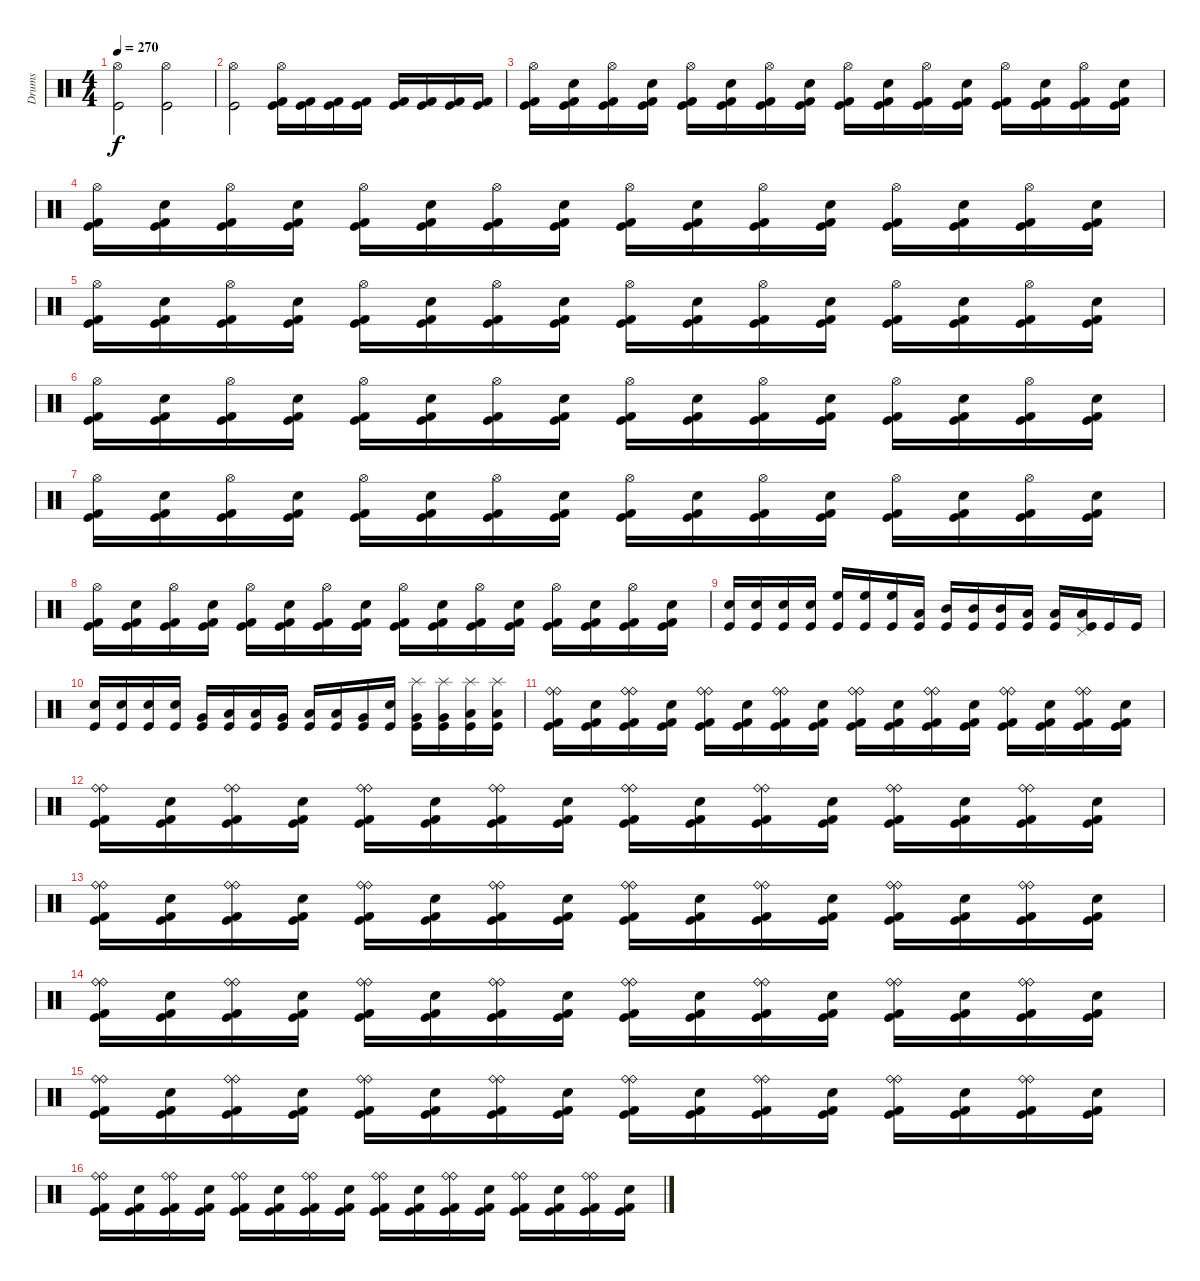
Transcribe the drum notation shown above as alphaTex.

\track ("Drums" "Drums") {instrument percussion}
\staff {score}
\articulation defaults
\ts (4 4)
\tempo 270
\clef neutral
\ks c
("Hi-Hat (open)" "Kick (hit)").2{dy f} ("Hi-Hat (open)" "Kick (hit)").2 |
("Hi-Hat (open)" "Kick (hit)").2 ("Hi-Hat (open)" "Kick (hit) 2" "Kick (hit)").16 ("Kick (hit) 2" "Kick (hit)").16 ("Kick (hit) 2" "Kick (hit)").16 ("Kick (hit) 2" "Kick (hit)").16 ("Kick (hit) 2" "Kick (hit)").16 ("Kick (hit) 2" "Kick (hit)").16 ("Kick (hit) 2" "Kick (hit)").16 ("Kick (hit) 2" "Kick (hit)").16 |
("Hi-Hat (open)" "Kick (hit)" "Kick (hit) 2").16 ("Electric Snare (hit)" "Kick (hit)" "Kick (hit) 2").16 ("Hi-Hat (open)" "Kick (hit)" "Kick (hit) 2").16 ("Electric Snare (hit)" "Kick (hit)" "Kick (hit) 2").16 ("Hi-Hat (open)" "Kick (hit)" "Kick (hit) 2").16 ("Electric Snare (hit)" "Kick (hit)" "Kick (hit) 2").16 ("Hi-Hat (open)" "Kick (hit)" "Kick (hit) 2").16 ("Electric Snare (hit)" "Kick (hit)" "Kick (hit) 2").16 ("Hi-Hat (open)" "Kick (hit)" "Kick (hit) 2").16 ("Electric Snare (hit)" "Kick (hit)" "Kick (hit) 2").16 ("Hi-Hat (open)" "Kick (hit)" "Kick (hit) 2").16 ("Electric Snare (hit)" "Kick (hit)" "Kick (hit) 2").16 ("Hi-Hat (open)" "Kick (hit)" "Kick (hit) 2").16 ("Electric Snare (hit)" "Kick (hit)" "Kick (hit) 2").16 ("Hi-Hat (open)" "Kick (hit)" "Kick (hit) 2").16 ("Electric Snare (hit)" "Kick (hit)" "Kick (hit) 2").16 |
("Hi-Hat (open)" "Kick (hit)" "Kick (hit) 2").16 ("Electric Snare (hit)" "Kick (hit)" "Kick (hit) 2").16 ("Hi-Hat (open)" "Kick (hit)" "Kick (hit) 2").16 ("Electric Snare (hit)" "Kick (hit)" "Kick (hit) 2").16 ("Hi-Hat (open)" "Kick (hit)" "Kick (hit) 2").16 ("Electric Snare (hit)" "Kick (hit)" "Kick (hit) 2").16 ("Hi-Hat (open)" "Kick (hit)" "Kick (hit) 2").16 ("Electric Snare (hit)" "Kick (hit)" "Kick (hit) 2").16 ("Hi-Hat (open)" "Kick (hit)" "Kick (hit) 2").16 ("Electric Snare (hit)" "Kick (hit)" "Kick (hit) 2").16 ("Hi-Hat (open)" "Kick (hit)" "Kick (hit) 2").16 ("Electric Snare (hit)" "Kick (hit)" "Kick (hit) 2").16 ("Hi-Hat (open)" "Kick (hit)" "Kick (hit) 2").16 ("Electric Snare (hit)" "Kick (hit)" "Kick (hit) 2").16 ("Hi-Hat (open)" "Kick (hit)" "Kick (hit) 2").16 ("Electric Snare (hit)" "Kick (hit)" "Kick (hit) 2").16 |
("Hi-Hat (open)" "Kick (hit)" "Kick (hit) 2").16 ("Electric Snare (hit)" "Kick (hit)" "Kick (hit) 2").16 ("Hi-Hat (open)" "Kick (hit)" "Kick (hit) 2").16 ("Electric Snare (hit)" "Kick (hit)" "Kick (hit) 2").16 ("Hi-Hat (open)" "Kick (hit)" "Kick (hit) 2").16 ("Electric Snare (hit)" "Kick (hit)" "Kick (hit) 2").16 ("Hi-Hat (open)" "Kick (hit)" "Kick (hit) 2").16 ("Electric Snare (hit)" "Kick (hit)" "Kick (hit) 2").16 ("Hi-Hat (open)" "Kick (hit)" "Kick (hit) 2").16 ("Electric Snare (hit)" "Kick (hit)" "Kick (hit) 2").16 ("Hi-Hat (open)" "Kick (hit)" "Kick (hit) 2").16 ("Electric Snare (hit)" "Kick (hit)" "Kick (hit) 2").16 ("Hi-Hat (open)" "Kick (hit)" "Kick (hit) 2").16 ("Electric Snare (hit)" "Kick (hit)" "Kick (hit) 2").16 ("Hi-Hat (open)" "Kick (hit)" "Kick (hit) 2").16 ("Electric Snare (hit)" "Kick (hit)" "Kick (hit) 2").16 |
("Hi-Hat (open)" "Kick (hit)" "Kick (hit) 2").16 ("Electric Snare (hit)" "Kick (hit)" "Kick (hit) 2").16 ("Hi-Hat (open)" "Kick (hit)" "Kick (hit) 2").16 ("Electric Snare (hit)" "Kick (hit)" "Kick (hit) 2").16 ("Hi-Hat (open)" "Kick (hit)" "Kick (hit) 2").16 ("Electric Snare (hit)" "Kick (hit)" "Kick (hit) 2").16 ("Hi-Hat (open)" "Kick (hit)" "Kick (hit) 2").16 ("Electric Snare (hit)" "Kick (hit)" "Kick (hit) 2").16 ("Hi-Hat (open)" "Kick (hit)" "Kick (hit) 2").16 ("Electric Snare (hit)" "Kick (hit)" "Kick (hit) 2").16 ("Hi-Hat (open)" "Kick (hit)" "Kick (hit) 2").16 ("Electric Snare (hit)" "Kick (hit)" "Kick (hit) 2").16 ("Hi-Hat (open)" "Kick (hit)" "Kick (hit) 2").16 ("Electric Snare (hit)" "Kick (hit)" "Kick (hit) 2").16 ("Hi-Hat (open)" "Kick (hit)" "Kick (hit) 2").16 ("Electric Snare (hit)" "Kick (hit)" "Kick (hit) 2").16 |
("Hi-Hat (open)" "Kick (hit)" "Kick (hit) 2").16 ("Electric Snare (hit)" "Kick (hit)" "Kick (hit) 2").16 ("Hi-Hat (open)" "Kick (hit)" "Kick (hit) 2").16 ("Electric Snare (hit)" "Kick (hit)" "Kick (hit) 2").16 ("Hi-Hat (open)" "Kick (hit)" "Kick (hit) 2").16 ("Electric Snare (hit)" "Kick (hit)" "Kick (hit) 2").16 ("Hi-Hat (open)" "Kick (hit)" "Kick (hit) 2").16 ("Electric Snare (hit)" "Kick (hit)" "Kick (hit) 2").16 ("Hi-Hat (open)" "Kick (hit)" "Kick (hit) 2").16 ("Electric Snare (hit)" "Kick (hit)" "Kick (hit) 2").16 ("Hi-Hat (open)" "Kick (hit)" "Kick (hit) 2").16 ("Electric Snare (hit)" "Kick (hit)" "Kick (hit) 2").16 ("Hi-Hat (open)" "Kick (hit)" "Kick (hit) 2").16 ("Electric Snare (hit)" "Kick (hit)" "Kick (hit) 2").16 ("Hi-Hat (open)" "Kick (hit)" "Kick (hit) 2").16 ("Electric Snare (hit)" "Kick (hit)" "Kick (hit) 2").16 |
("Hi-Hat (open)" "Kick (hit)" "Kick (hit) 2").16 ("Electric Snare (hit)" "Kick (hit)" "Kick (hit) 2").16 ("Hi-Hat (open)" "Kick (hit)" "Kick (hit) 2").16 ("Electric Snare (hit)" "Kick (hit)" "Kick (hit) 2").16 ("Hi-Hat (open)" "Kick (hit)" "Kick (hit) 2").16 ("Electric Snare (hit)" "Kick (hit)" "Kick (hit) 2").16 ("Hi-Hat (open)" "Kick (hit)" "Kick (hit) 2").16 ("Electric Snare (hit)" "Kick (hit)" "Kick (hit) 2").16 ("Hi-Hat (open)" "Kick (hit)" "Kick (hit) 2").16 ("Electric Snare (hit)" "Kick (hit)" "Kick (hit) 2").16 ("Hi-Hat (open)" "Kick (hit)" "Kick (hit) 2").16 ("Electric Snare (hit)" "Kick (hit)" "Kick (hit) 2").16 ("Hi-Hat (open)" "Kick (hit)" "Kick (hit) 2").16 ("Electric Snare (hit)" "Kick (hit)" "Kick (hit) 2").16 ("Hi-Hat (open)" "Kick (hit)" "Kick (hit) 2").16 ("Electric Snare (hit)" "Kick (hit)" "Kick (hit) 2").16 |
("Electric Snare (hit)" "Kick (hit)").16 ("Electric Snare (hit)" "Kick (hit)").16 ("Electric Snare (hit)" "Kick (hit)").16 ("Electric Snare (hit)" "Kick (hit)").16 ("High Floor Tom (hit)" "Kick (hit)").16 ("High Floor Tom (hit)" "Kick (hit)").16 ("High Floor Tom (hit)" "Kick (hit)").16 ("Low Tom (hit)" "Kick (hit)").16 ("Mid Tom (hit)" "Kick (hit)").16 ("Mid Tom (hit)" "Kick (hit)").16 ("Mid Tom (hit)" "Kick (hit)").16 ("Low Tom (hit)" "Kick (hit)").16 ("Low Tom (hit)" "Kick (hit)").16 ("Pedal Hi-Hat (hit)" "Low Tom (hit)" "Kick (hit)").16 "Kick (hit)".16 "Kick (hit)".16 |
("Electric Snare (hit)" "Kick (hit)").16 ("Electric Snare (hit)" "Kick (hit)").16 ("Electric Snare (hit)" "Kick (hit)").16 ("Electric Snare (hit)" "Kick (hit)").16 ("Very Low Tom (hit)" "Kick (hit)").16 ("Low Tom (hit)" "Kick (hit)").16 ("Low Floor Tom (hit)" "Kick (hit)").16 ("Very Low Tom (hit)" "Kick (hit)").16 ("Low Floor Tom (hit)" "Kick (hit)").16 ("Low Floor Tom (hit)" "Kick (hit)").16 ("Very Low Tom (hit)" "Kick (hit)").16 ("Electric Snare (hit)" "Kick (hit)").16 ("Splash (hit)" "Very Low Tom (hit)" "Kick (hit)").16 ("Splash (hit)" "Very Low Tom (hit)" "Kick (hit)").16 ("Splash (hit)" "Low Floor Tom (hit)" "Kick (hit)").16 ("Splash (hit)" "Low Floor Tom (hit)" "Kick (hit)").16 |
("Ride (bell)" "Ride (bell)" "Kick (hit)" "Kick (hit) 2").16 ("Electric Snare (hit)" "Kick (hit)" "Kick (hit) 2").16 ("Ride (bell)" "Ride (bell)" "Kick (hit)" "Kick (hit) 2").16 ("Electric Snare (hit)" "Kick (hit)" "Kick (hit) 2").16 ("Ride (bell)" "Ride (bell)" "Kick (hit)" "Kick (hit) 2").16 ("Electric Snare (hit)" "Kick (hit)" "Kick (hit) 2").16 ("Ride (bell)" "Ride (bell)" "Kick (hit)" "Kick (hit) 2").16 ("Electric Snare (hit)" "Kick (hit)" "Kick (hit) 2").16 ("Ride (bell)" "Ride (bell)" "Kick (hit)" "Kick (hit) 2").16 ("Electric Snare (hit)" "Kick (hit)" "Kick (hit) 2").16 ("Ride (bell)" "Ride (bell)" "Kick (hit)" "Kick (hit) 2").16 ("Electric Snare (hit)" "Kick (hit)" "Kick (hit) 2").16 ("Ride (bell)" "Ride (bell)" "Kick (hit)" "Kick (hit) 2").16 ("Electric Snare (hit)" "Kick (hit)" "Kick (hit) 2").16 ("Ride (bell)" "Ride (bell)" "Kick (hit)" "Kick (hit) 2").16 ("Electric Snare (hit)" "Kick (hit)" "Kick (hit) 2").16 |
("Ride (bell)" "Ride (bell)" "Kick (hit)" "Kick (hit) 2").16 ("Electric Snare (hit)" "Kick (hit)" "Kick (hit) 2").16 ("Ride (bell)" "Ride (bell)" "Kick (hit)" "Kick (hit) 2").16 ("Electric Snare (hit)" "Kick (hit)" "Kick (hit) 2").16 ("Ride (bell)" "Ride (bell)" "Kick (hit)" "Kick (hit) 2").16 ("Electric Snare (hit)" "Kick (hit)" "Kick (hit) 2").16 ("Ride (bell)" "Ride (bell)" "Kick (hit)" "Kick (hit) 2").16 ("Electric Snare (hit)" "Kick (hit)" "Kick (hit) 2").16 ("Ride (bell)" "Ride (bell)" "Kick (hit)" "Kick (hit) 2").16 ("Electric Snare (hit)" "Kick (hit)" "Kick (hit) 2").16 ("Ride (bell)" "Ride (bell)" "Kick (hit)" "Kick (hit) 2").16 ("Electric Snare (hit)" "Kick (hit)" "Kick (hit) 2").16 ("Ride (bell)" "Ride (bell)" "Kick (hit)" "Kick (hit) 2").16 ("Electric Snare (hit)" "Kick (hit)" "Kick (hit) 2").16 ("Ride (bell)" "Ride (bell)" "Kick (hit)" "Kick (hit) 2").16 ("Electric Snare (hit)" "Kick (hit)" "Kick (hit) 2").16 |
("Ride (bell)" "Ride (bell)" "Kick (hit)" "Kick (hit) 2").16 ("Electric Snare (hit)" "Kick (hit)" "Kick (hit) 2").16 ("Ride (bell)" "Ride (bell)" "Kick (hit)" "Kick (hit) 2").16 ("Electric Snare (hit)" "Kick (hit)" "Kick (hit) 2").16 ("Ride (bell)" "Ride (bell)" "Kick (hit)" "Kick (hit) 2").16 ("Electric Snare (hit)" "Kick (hit)" "Kick (hit) 2").16 ("Ride (bell)" "Ride (bell)" "Kick (hit)" "Kick (hit) 2").16 ("Electric Snare (hit)" "Kick (hit)" "Kick (hit) 2").16 ("Ride (bell)" "Ride (bell)" "Kick (hit)" "Kick (hit) 2").16 ("Electric Snare (hit)" "Kick (hit)" "Kick (hit) 2").16 ("Ride (bell)" "Ride (bell)" "Kick (hit)" "Kick (hit) 2").16 ("Electric Snare (hit)" "Kick (hit)" "Kick (hit) 2").16 ("Ride (bell)" "Ride (bell)" "Kick (hit)" "Kick (hit) 2").16 ("Electric Snare (hit)" "Kick (hit)" "Kick (hit) 2").16 ("Ride (bell)" "Ride (bell)" "Kick (hit)" "Kick (hit) 2").16 ("Electric Snare (hit)" "Kick (hit)" "Kick (hit) 2").16 |
("Ride (bell)" "Ride (bell)" "Kick (hit)" "Kick (hit) 2").16 ("Electric Snare (hit)" "Kick (hit)" "Kick (hit) 2").16 ("Ride (bell)" "Ride (bell)" "Kick (hit)" "Kick (hit) 2").16 ("Electric Snare (hit)" "Kick (hit)" "Kick (hit) 2").16 ("Ride (bell)" "Ride (bell)" "Kick (hit)" "Kick (hit) 2").16 ("Electric Snare (hit)" "Kick (hit)" "Kick (hit) 2").16 ("Ride (bell)" "Ride (bell)" "Kick (hit)" "Kick (hit) 2").16 ("Electric Snare (hit)" "Kick (hit)" "Kick (hit) 2").16 ("Ride (bell)" "Ride (bell)" "Kick (hit)" "Kick (hit) 2").16 ("Electric Snare (hit)" "Kick (hit)" "Kick (hit) 2").16 ("Ride (bell)" "Ride (bell)" "Kick (hit)" "Kick (hit) 2").16 ("Electric Snare (hit)" "Kick (hit)" "Kick (hit) 2").16 ("Ride (bell)" "Ride (bell)" "Kick (hit)" "Kick (hit) 2").16 ("Electric Snare (hit)" "Kick (hit)" "Kick (hit) 2").16 ("Ride (bell)" "Ride (bell)" "Kick (hit)" "Kick (hit) 2").16 ("Electric Snare (hit)" "Kick (hit)" "Kick (hit) 2").16 |
("Ride (bell)" "Ride (bell)" "Kick (hit)" "Kick (hit) 2").16 ("Electric Snare (hit)" "Kick (hit)" "Kick (hit) 2").16 ("Ride (bell)" "Ride (bell)" "Kick (hit)" "Kick (hit) 2").16 ("Electric Snare (hit)" "Kick (hit)" "Kick (hit) 2").16 ("Ride (bell)" "Ride (bell)" "Kick (hit)" "Kick (hit) 2").16 ("Electric Snare (hit)" "Kick (hit)" "Kick (hit) 2").16 ("Ride (bell)" "Ride (bell)" "Kick (hit)" "Kick (hit) 2").16 ("Electric Snare (hit)" "Kick (hit)" "Kick (hit) 2").16 ("Ride (bell)" "Ride (bell)" "Kick (hit)" "Kick (hit) 2").16 ("Electric Snare (hit)" "Kick (hit)" "Kick (hit) 2").16 ("Ride (bell)" "Ride (bell)" "Kick (hit)" "Kick (hit) 2").16 ("Electric Snare (hit)" "Kick (hit)" "Kick (hit) 2").16 ("Ride (bell)" "Ride (bell)" "Kick (hit)" "Kick (hit) 2").16 ("Electric Snare (hit)" "Kick (hit)" "Kick (hit) 2").16 ("Ride (bell)" "Ride (bell)" "Kick (hit)" "Kick (hit) 2").16 ("Electric Snare (hit)" "Kick (hit)" "Kick (hit) 2").16 |
("Ride (bell)" "Ride (bell)" "Kick (hit)" "Kick (hit) 2").16 ("Electric Snare (hit)" "Kick (hit)" "Kick (hit) 2").16 ("Ride (bell)" "Ride (bell)" "Kick (hit)" "Kick (hit) 2").16 ("Electric Snare (hit)" "Kick (hit)" "Kick (hit) 2").16 ("Ride (bell)" "Ride (bell)" "Kick (hit)" "Kick (hit) 2").16 ("Electric Snare (hit)" "Kick (hit)" "Kick (hit) 2").16 ("Ride (bell)" "Ride (bell)" "Kick (hit)" "Kick (hit) 2").16 ("Electric Snare (hit)" "Kick (hit)" "Kick (hit) 2").16 ("Ride (bell)" "Ride (bell)" "Kick (hit)" "Kick (hit) 2").16 ("Electric Snare (hit)" "Kick (hit)" "Kick (hit) 2").16 ("Ride (bell)" "Ride (bell)" "Kick (hit)" "Kick (hit) 2").16 ("Electric Snare (hit)" "Kick (hit)" "Kick (hit) 2").16 ("Ride (bell)" "Ride (bell)" "Kick (hit)" "Kick (hit) 2").16 ("Electric Snare (hit)" "Kick (hit)" "Kick (hit) 2").16 ("Ride (bell)" "Ride (bell)" "Kick (hit)" "Kick (hit) 2").16 ("Electric Snare (hit)" "Kick (hit)" "Kick (hit) 2").16
